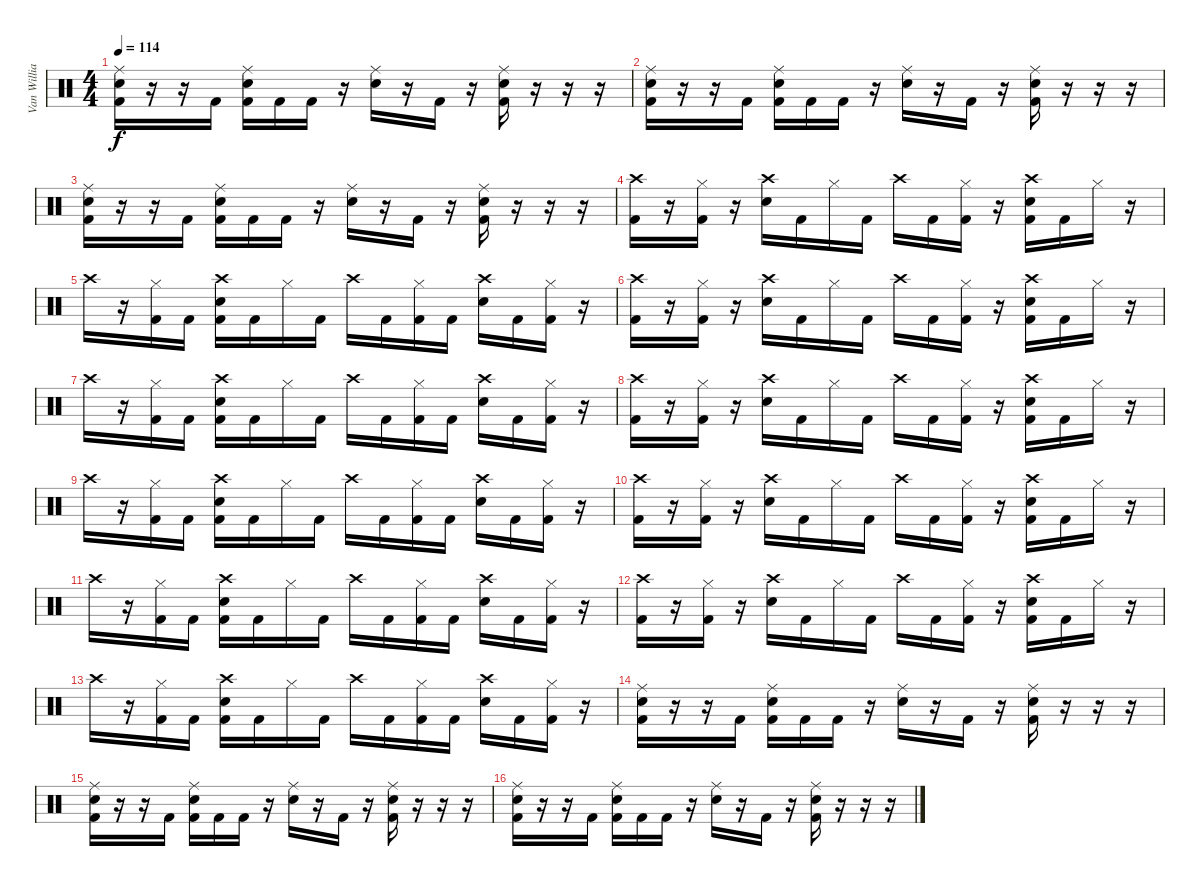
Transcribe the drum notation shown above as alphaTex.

\track ("Van Williams (Drums)" "Van Willia") {instrument percussion}
\staff {score}
\articulation defaults
\ts (4 4)
\tempo 114
\clef neutral
\ks c
("Ride (middle)" "Snare (hit) 2" "Kick (hit) 2").16{dy f} r.16 r.16 "Kick (hit) 2".16 ("Ride (middle)" "Snare (hit) 2" "Kick (hit) 2").16 "Kick (hit) 2".16 "Kick (hit) 2".16 r.16 ("Ride (middle)" "Snare (hit) 2").16 r.16 "Kick (hit) 2".16 r.16 ("Ride (middle)" "Snare (hit) 2" "Kick (hit) 2").16 r.16 r.16 r.16 |
("Ride (middle)" "Snare (hit) 2" "Kick (hit) 2").16 r.16 r.16 "Kick (hit) 2".16 ("Ride (middle)" "Snare (hit) 2" "Kick (hit) 2").16 "Kick (hit) 2".16 "Kick (hit) 2".16 r.16 ("Ride (middle)" "Snare (hit) 2").16 r.16 "Kick (hit) 2".16 r.16 ("Ride (middle)" "Snare (hit) 2" "Kick (hit) 2").16 r.16 r.16 r.16 |
("Ride (middle)" "Snare (hit) 2" "Kick (hit) 2").16 r.16 r.16 "Kick (hit) 2".16 ("Ride (middle)" "Snare (hit) 2" "Kick (hit) 2").16 "Kick (hit) 2".16 "Kick (hit) 2".16 r.16 ("Ride (middle)" "Snare (hit) 2").16 r.16 "Kick (hit) 2".16 r.16 ("Ride (middle)" "Snare (hit) 2" "Kick (hit) 2").16 r.16 r.16 r.16 |
("Crash high (hit)" "Kick (hit) 2").16 r.16 ("Hi-Hat (closed)" "Kick (hit) 2").16 r.16 ("Snare (hit) 2" "Crash high (hit)").16 "Kick (hit) 2".16 "Hi-Hat (closed)".16 "Kick (hit) 2".16 "Crash high (hit)".16 "Kick (hit) 2".16 ("Hi-Hat (closed)" "Kick (hit) 2").16 r.16 ("Snare (hit) 2" "Crash high (hit)" "Kick (hit) 2").16 "Kick (hit) 2".16 "Hi-Hat (closed)".16 r.16 |
"Crash high (hit)".16 r.16 ("Hi-Hat (closed)" "Kick (hit) 2").16 "Kick (hit) 2".16 ("Snare (hit) 2" "Crash high (hit)" "Kick (hit) 2").16 "Kick (hit) 2".16 "Hi-Hat (closed)".16 "Kick (hit) 2".16 "Crash high (hit)".16 "Kick (hit) 2".16 ("Hi-Hat (closed)" "Kick (hit) 2").16 "Kick (hit) 2".16 ("Snare (hit) 2" "Crash high (hit)").16 "Kick (hit) 2".16 ("Hi-Hat (closed)" "Kick (hit) 2").16 r.16 |
("Crash high (hit)" "Kick (hit) 2").16 r.16 ("Hi-Hat (closed)" "Kick (hit) 2").16 r.16 ("Snare (hit) 2" "Crash high (hit)").16 "Kick (hit) 2".16 "Hi-Hat (closed)".16 "Kick (hit) 2".16 "Crash high (hit)".16 "Kick (hit) 2".16 ("Hi-Hat (closed)" "Kick (hit) 2").16 r.16 ("Snare (hit) 2" "Crash high (hit)" "Kick (hit) 2").16 "Kick (hit) 2".16 "Hi-Hat (closed)".16 r.16 |
"Crash high (hit)".16 r.16 ("Hi-Hat (closed)" "Kick (hit) 2").16 "Kick (hit) 2".16 ("Snare (hit) 2" "Crash high (hit)" "Kick (hit) 2").16 "Kick (hit) 2".16 "Hi-Hat (closed)".16 "Kick (hit) 2".16 "Crash high (hit)".16 "Kick (hit) 2".16 ("Hi-Hat (closed)" "Kick (hit) 2").16 "Kick (hit) 2".16 ("Snare (hit) 2" "Crash high (hit)").16 "Kick (hit) 2".16 ("Hi-Hat (closed)" "Kick (hit) 2").16 r.16 |
("Crash high (hit)" "Kick (hit) 2").16 r.16 ("Hi-Hat (closed)" "Kick (hit) 2").16 r.16 ("Snare (hit) 2" "Crash high (hit)").16 "Kick (hit) 2".16 "Hi-Hat (closed)".16 "Kick (hit) 2".16 "Crash high (hit)".16 "Kick (hit) 2".16 ("Hi-Hat (closed)" "Kick (hit) 2").16 r.16 ("Snare (hit) 2" "Crash high (hit)" "Kick (hit) 2").16 "Kick (hit) 2".16 "Hi-Hat (closed)".16 r.16 |
"Crash high (hit)".16 r.16 ("Hi-Hat (closed)" "Kick (hit) 2").16 "Kick (hit) 2".16 ("Snare (hit) 2" "Crash high (hit)" "Kick (hit) 2").16 "Kick (hit) 2".16 "Hi-Hat (closed)".16 "Kick (hit) 2".16 "Crash high (hit)".16 "Kick (hit) 2".16 ("Hi-Hat (closed)" "Kick (hit) 2").16 "Kick (hit) 2".16 ("Snare (hit) 2" "Crash high (hit)").16 "Kick (hit) 2".16 ("Hi-Hat (closed)" "Kick (hit) 2").16 r.16 |
("Crash high (hit)" "Kick (hit) 2").16 r.16 ("Hi-Hat (closed)" "Kick (hit) 2").16 r.16 ("Snare (hit) 2" "Crash high (hit)").16 "Kick (hit) 2".16 "Hi-Hat (closed)".16 "Kick (hit) 2".16 "Crash high (hit)".16 "Kick (hit) 2".16 ("Hi-Hat (closed)" "Kick (hit) 2").16 r.16 ("Snare (hit) 2" "Crash high (hit)" "Kick (hit) 2").16 "Kick (hit) 2".16 "Hi-Hat (closed)".16 r.16 |
"Crash high (hit)".16 r.16 ("Hi-Hat (closed)" "Kick (hit) 2").16 "Kick (hit) 2".16 ("Snare (hit) 2" "Crash high (hit)" "Kick (hit) 2").16 "Kick (hit) 2".16 "Hi-Hat (closed)".16 "Kick (hit) 2".16 "Crash high (hit)".16 "Kick (hit) 2".16 ("Hi-Hat (closed)" "Kick (hit) 2").16 "Kick (hit) 2".16 ("Snare (hit) 2" "Crash high (hit)").16 "Kick (hit) 2".16 ("Hi-Hat (closed)" "Kick (hit) 2").16 r.16 |
("Crash high (hit)" "Kick (hit) 2").16 r.16 ("Hi-Hat (closed)" "Kick (hit) 2").16 r.16 ("Snare (hit) 2" "Crash high (hit)").16 "Kick (hit) 2".16 "Hi-Hat (closed)".16 "Kick (hit) 2".16 "Crash high (hit)".16 "Kick (hit) 2".16 ("Hi-Hat (closed)" "Kick (hit) 2").16 r.16 ("Snare (hit) 2" "Crash high (hit)" "Kick (hit) 2").16 "Kick (hit) 2".16 "Hi-Hat (closed)".16 r.16 |
"Crash high (hit)".16 r.16 ("Hi-Hat (closed)" "Kick (hit) 2").16 "Kick (hit) 2".16 ("Snare (hit) 2" "Crash high (hit)" "Kick (hit) 2").16 "Kick (hit) 2".16 "Hi-Hat (closed)".16 "Kick (hit) 2".16 "Crash high (hit)".16 "Kick (hit) 2".16 ("Hi-Hat (closed)" "Kick (hit) 2").16 "Kick (hit) 2".16 ("Snare (hit) 2" "Crash high (hit)").16 "Kick (hit) 2".16 ("Hi-Hat (closed)" "Kick (hit) 2").16 r.16 |
("Ride (middle)" "Snare (hit) 2" "Kick (hit) 2").16 r.16 r.16 "Kick (hit) 2".16 ("Ride (middle)" "Snare (hit) 2" "Kick (hit) 2").16 "Kick (hit) 2".16 "Kick (hit) 2".16 r.16 ("Ride (middle)" "Snare (hit) 2").16 r.16 "Kick (hit) 2".16 r.16 ("Ride (middle)" "Snare (hit) 2" "Kick (hit) 2").16 r.16 r.16 r.16 |
("Ride (middle)" "Snare (hit) 2" "Kick (hit) 2").16 r.16 r.16 "Kick (hit) 2".16 ("Ride (middle)" "Snare (hit) 2" "Kick (hit) 2").16 "Kick (hit) 2".16 "Kick (hit) 2".16 r.16 ("Ride (middle)" "Snare (hit) 2").16 r.16 "Kick (hit) 2".16 r.16 ("Ride (middle)" "Snare (hit) 2" "Kick (hit) 2").16 r.16 r.16 r.16 |
("Ride (middle)" "Snare (hit) 2" "Kick (hit) 2").16 r.16 r.16 "Kick (hit) 2".16 ("Ride (middle)" "Snare (hit) 2" "Kick (hit) 2").16 "Kick (hit) 2".16 "Kick (hit) 2".16 r.16 ("Ride (middle)" "Snare (hit) 2").16 r.16 "Kick (hit) 2".16 r.16 ("Ride (middle)" "Snare (hit) 2" "Kick (hit) 2").16 r.16 r.16 r.16
